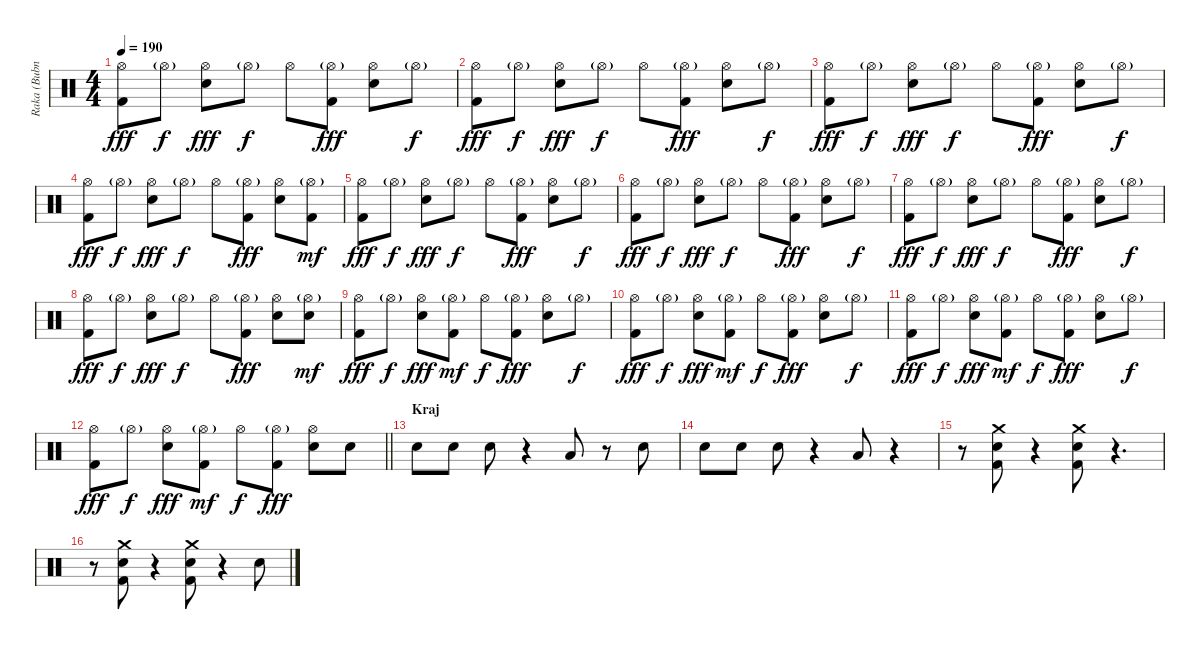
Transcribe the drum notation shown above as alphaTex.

\track ("Raka (Bubnjevi)" "Raka (Bubn") {instrument percussion}
\staff {score}
\articulation defaults
\ts (4 4)
\tempo 190
\clef neutral
\ks c
("Hi-Hat (open)" "Kick (hit) 2").8{dy fff} "Hi-Hat (open)"{g}.8{dy f} ("Hi-Hat (open)" "Snare (hit) 2").8{dy fff} "Hi-Hat (open)"{g}.8{dy f} "Hi-Hat (open)".8 ("Hi-Hat (open)"{g} "Kick (hit) 2").8{dy fff} ("Hi-Hat (open)" "Snare (hit) 2").8 "Hi-Hat (open)"{g}.8{dy f} |
("Hi-Hat (open)" "Kick (hit) 2").8{dy fff} "Hi-Hat (open)"{g}.8{dy f} ("Hi-Hat (open)" "Snare (hit) 2").8{dy fff} "Hi-Hat (open)"{g}.8{dy f} "Hi-Hat (open)".8 ("Hi-Hat (open)"{g} "Kick (hit) 2").8{dy fff} ("Hi-Hat (open)" "Snare (hit) 2").8 "Hi-Hat (open)"{g}.8{dy f} |
("Hi-Hat (open)" "Kick (hit) 2").8{dy fff} "Hi-Hat (open)"{g}.8{dy f} ("Hi-Hat (open)" "Snare (hit) 2").8{dy fff} "Hi-Hat (open)"{g}.8{dy f} "Hi-Hat (open)".8 ("Hi-Hat (open)"{g} "Kick (hit) 2").8{dy fff} ("Hi-Hat (open)" "Snare (hit) 2").8 "Hi-Hat (open)"{g}.8{dy f} |
("Hi-Hat (open)" "Kick (hit) 2").8{dy fff} "Hi-Hat (open)"{g}.8{dy f} ("Hi-Hat (open)" "Snare (hit) 2").8{dy fff} "Hi-Hat (open)"{g}.8{dy f} "Hi-Hat (open)".8 ("Hi-Hat (open)"{g} "Kick (hit) 2").8{dy fff} ("Hi-Hat (open)" "Snare (hit) 2").8 ("Hi-Hat (open)"{g} "Kick (hit) 2").8{dy mf} |
("Hi-Hat (open)" "Kick (hit) 2").8{dy fff} "Hi-Hat (open)"{g}.8{dy f} ("Hi-Hat (open)" "Snare (hit) 2").8{dy fff} "Hi-Hat (open)"{g}.8{dy f} "Hi-Hat (open)".8 ("Hi-Hat (open)"{g} "Kick (hit) 2").8{dy fff} ("Hi-Hat (open)" "Snare (hit) 2").8 "Hi-Hat (open)"{g}.8{dy f} |
("Hi-Hat (open)" "Kick (hit) 2").8{dy fff} "Hi-Hat (open)"{g}.8{dy f} ("Hi-Hat (open)" "Snare (hit) 2").8{dy fff} "Hi-Hat (open)"{g}.8{dy f} "Hi-Hat (open)".8 ("Hi-Hat (open)"{g} "Kick (hit) 2").8{dy fff} ("Hi-Hat (open)" "Snare (hit) 2").8 "Hi-Hat (open)"{g}.8{dy f} |
("Hi-Hat (open)" "Kick (hit) 2").8{dy fff} "Hi-Hat (open)"{g}.8{dy f} ("Hi-Hat (open)" "Snare (hit) 2").8{dy fff} "Hi-Hat (open)"{g}.8{dy f} "Hi-Hat (open)".8 ("Hi-Hat (open)"{g} "Kick (hit) 2").8{dy fff} ("Hi-Hat (open)" "Snare (hit) 2").8 "Hi-Hat (open)"{g}.8{dy f} |
("Hi-Hat (open)" "Kick (hit) 2").8{dy fff} "Hi-Hat (open)"{g}.8{dy f} ("Hi-Hat (open)" "Snare (hit) 2").8{dy fff} "Hi-Hat (open)"{g}.8{dy f} "Hi-Hat (open)".8 ("Hi-Hat (open)"{g} "Kick (hit) 2").8{dy fff} ("Hi-Hat (open)" "Snare (hit) 2").8 ("Hi-Hat (open)"{g} "Snare (hit) 2").8{dy mf} |
("Hi-Hat (open)" "Kick (hit) 2").8{dy fff} "Hi-Hat (open)"{g}.8{dy f} ("Hi-Hat (open)" "Snare (hit) 2").8{dy fff} ("Hi-Hat (open)"{g} "Kick (hit) 2").8{dy mf} "Hi-Hat (open)".8{dy f} ("Hi-Hat (open)"{g} "Kick (hit) 2").8{dy fff} ("Hi-Hat (open)" "Snare (hit) 2").8 "Hi-Hat (open)"{g}.8{dy f} |
("Hi-Hat (open)" "Kick (hit) 2").8{dy fff} "Hi-Hat (open)"{g}.8{dy f} ("Hi-Hat (open)" "Snare (hit) 2").8{dy fff} ("Hi-Hat (open)"{g} "Kick (hit) 2").8{dy mf} "Hi-Hat (open)".8{dy f} ("Hi-Hat (open)"{g} "Kick (hit) 2").8{dy fff} ("Hi-Hat (open)" "Snare (hit) 2").8 "Hi-Hat (open)"{g}.8{dy f} |
("Hi-Hat (open)" "Kick (hit) 2").8{dy fff} "Hi-Hat (open)"{g}.8{dy f} ("Hi-Hat (open)" "Snare (hit) 2").8{dy fff} ("Hi-Hat (open)"{g} "Kick (hit) 2").8{dy mf} "Hi-Hat (open)".8{dy f} ("Hi-Hat (open)"{g} "Kick (hit) 2").8{dy fff} ("Hi-Hat (open)" "Snare (hit) 2").8 "Hi-Hat (open)"{g}.8{dy f} |
\barLineRight lightlight
("Hi-Hat (open)" "Kick (hit) 2").8{dy fff} "Hi-Hat (open)"{g}.8{dy f} ("Hi-Hat (open)" "Snare (hit) 2").8{dy fff} ("Hi-Hat (open)"{g} "Kick (hit) 2").8{dy mf} "Hi-Hat (open)".8{dy f} ("Hi-Hat (open)"{g} "Kick (hit) 2").8{dy fff} ("Hi-Hat (open)" "Snare (hit) 2").8 "Snare (hit) 2".8 |
\section ("" "Kraj")
"Snare (hit) 2".8 "Snare (hit) 2".8 "Snare (hit) 2".8 r.4 "Low Floor Tom (hit)".8 r.8 "Snare (hit) 2".8 |
"Snare (hit) 2".8 "Snare (hit) 2".8 "Snare (hit) 2".8 r.4 "Low Floor Tom (hit)".8 r.4 |
r.8 ("Crash medium (hit)" "Snare (hit) 2" "Kick (hit) 2").8 r.4 ("Crash medium (hit)" "Snare (hit) 2" "Kick (hit) 2").8 r.4{d} |
r.8 ("Crash medium (hit)" "Snare (hit) 2" "Kick (hit) 2").8 r.4 ("Crash medium (hit)" "Snare (hit) 2" "Kick (hit) 2").8 r.4 "Snare (hit) 2".8
